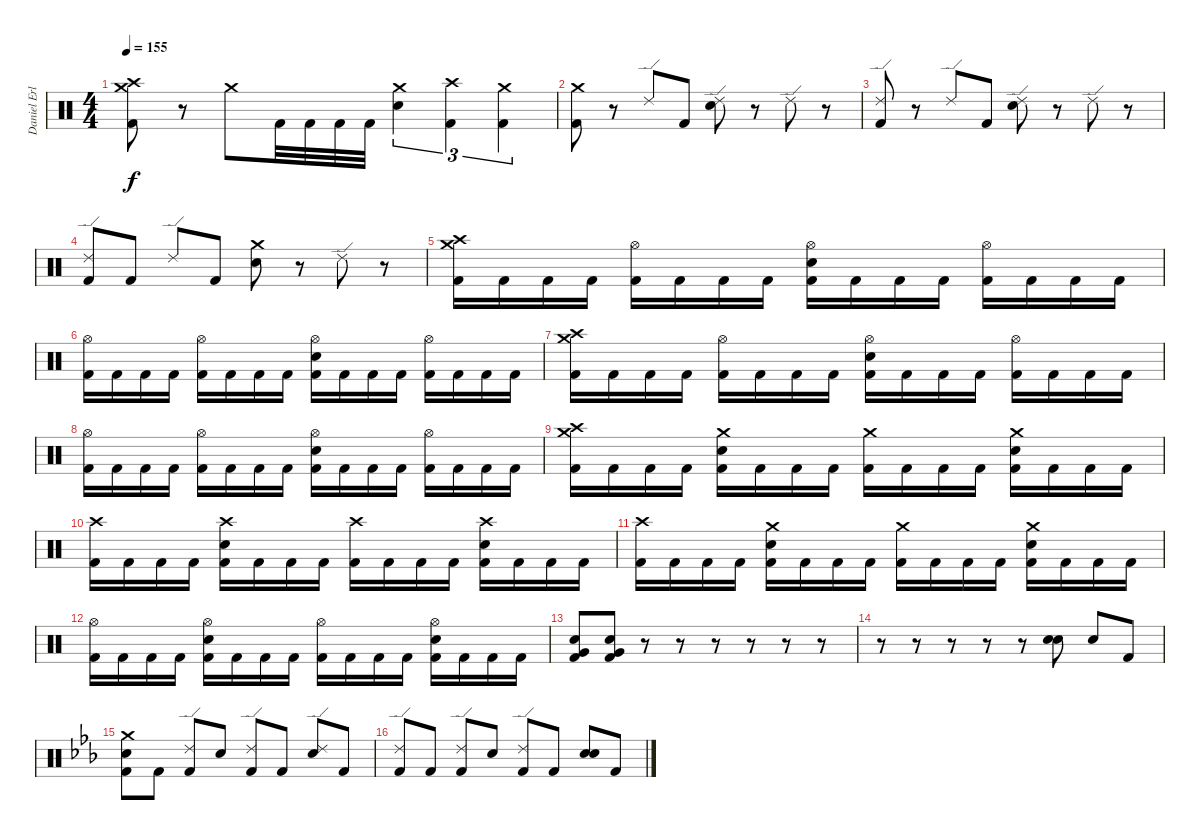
\track ("Daniel Erlandsson" "Daniel Erl") {instrument percussion}
\staff {score}
\articulation defaults
\ts (4 4)
\tempo 155
\clef neutral
\ks c
("Crash high (hit)" "Crash medium (hit)" "Kick (hit) 2").8{dy f} r.8 "Crash medium (hit)".8 "Kick (hit) 2".32 "Kick (hit) 2".32 "Kick (hit) 2".32 "Kick (hit) 2".32 ("Crash medium (hit)" "Snare (hit) 2").4{tu (3 2)} ("Crash high (hit)" "Kick (hit) 2").4{tu (3 2)} ("Crash medium (hit)" "Kick (hit) 2").4{tu (3 2)} |
("Crash medium (hit)" "Kick (hit) 2").8 r.8 "Ride (edge) 2".8 "Kick (hit) 2".8 ("Ride (edge) 2" "Snare (hit) 2").8 r.8 "Ride (edge) 2".8 r.8 |
("Ride (edge) 2" "Kick (hit) 2").8 r.8 "Ride (edge) 2".8 "Kick (hit) 2".8 ("Ride (edge) 2" "Snare (hit) 2").8 r.8 "Ride (edge) 2".8 r.8 |
("Ride (edge) 2" "Kick (hit) 2").8 "Kick (hit) 2".8 "Ride (edge) 2".8 "Kick (hit) 2".8 ("Crash medium (hit)" "Snare (hit) 2").8 r.8 "Ride (edge) 2".8 r.8 |
("Crash high (hit)" "Crash medium (hit)" "Kick (hit) 2").16 "Kick (hit) 2".16 "Kick (hit) 2".16 "Kick (hit) 2".16 ("Hi-Hat (open)" "Kick (hit) 2").16 "Kick (hit) 2".16 "Kick (hit) 2".16 "Kick (hit) 2".16 ("Hi-Hat (open)" "Snare (hit) 2" "Kick (hit) 2").16 "Kick (hit) 2".16 "Kick (hit) 2".16 "Kick (hit) 2".16 ("Hi-Hat (open)" "Kick (hit) 2").16 "Kick (hit) 2".16 "Kick (hit) 2".16 "Kick (hit) 2".16 |
("Hi-Hat (open)" "Kick (hit) 2").16 "Kick (hit) 2".16 "Kick (hit) 2".16 "Kick (hit) 2".16 ("Hi-Hat (open)" "Kick (hit) 2").16 "Kick (hit) 2".16 "Kick (hit) 2".16 "Kick (hit) 2".16 ("Hi-Hat (open)" "Snare (hit) 2" "Kick (hit) 2").16 "Kick (hit) 2".16 "Kick (hit) 2".16 "Kick (hit) 2".16 ("Hi-Hat (open)" "Kick (hit) 2").16 "Kick (hit) 2".16 "Kick (hit) 2".16 "Kick (hit) 2".16 |
("Crash high (hit)" "Crash medium (hit)" "Kick (hit) 2").16 "Kick (hit) 2".16 "Kick (hit) 2".16 "Kick (hit) 2".16 ("Hi-Hat (open)" "Kick (hit) 2").16 "Kick (hit) 2".16 "Kick (hit) 2".16 "Kick (hit) 2".16 ("Hi-Hat (open)" "Snare (hit) 2" "Kick (hit) 2").16 "Kick (hit) 2".16 "Kick (hit) 2".16 "Kick (hit) 2".16 ("Hi-Hat (open)" "Kick (hit) 2").16 "Kick (hit) 2".16 "Kick (hit) 2".16 "Kick (hit) 2".16 |
("Hi-Hat (open)" "Kick (hit) 2").16 "Kick (hit) 2".16 "Kick (hit) 2".16 "Kick (hit) 2".16 ("Hi-Hat (open)" "Kick (hit) 2").16 "Kick (hit) 2".16 "Kick (hit) 2".16 "Kick (hit) 2".16 ("Hi-Hat (open)" "Snare (hit) 2" "Kick (hit) 2").16 "Kick (hit) 2".16 "Kick (hit) 2".16 "Kick (hit) 2".16 ("Hi-Hat (open)" "Kick (hit) 2").16 "Kick (hit) 2".16 "Kick (hit) 2".16 "Kick (hit) 2".16 |
("Crash high (hit)" "Crash medium (hit)" "Kick (hit) 2").16 "Kick (hit) 2".16 "Kick (hit) 2".16 "Kick (hit) 2".16 ("Crash medium (hit)" "Snare (hit) 2" "Kick (hit) 2").16 "Kick (hit) 2".16 "Kick (hit) 2".16 "Kick (hit) 2".16 ("Crash medium (hit)" "Kick (hit) 2").16 "Kick (hit) 2".16 "Kick (hit) 2".16 "Kick (hit) 2".16 ("Crash medium (hit)" "Snare (hit) 2" "Kick (hit) 2").16 "Kick (hit) 2".16 "Kick (hit) 2".16 "Kick (hit) 2".16 |
("Crash high (hit)" "Kick (hit) 2").16 "Kick (hit) 2".16 "Kick (hit) 2".16 "Kick (hit) 2".16 ("Crash high (hit)" "Snare (hit) 2" "Kick (hit) 2").16 "Kick (hit) 2".16 "Kick (hit) 2".16 "Kick (hit) 2".16 ("Crash high (hit)" "Kick (hit) 2").16 "Kick (hit) 2".16 "Kick (hit) 2".16 "Kick (hit) 2".16 ("Crash high (hit)" "Snare (hit) 2" "Kick (hit) 2").16 "Kick (hit) 2".16 "Kick (hit) 2".16 "Kick (hit) 2".16 |
("Crash high (hit)" "Kick (hit) 2").16 "Kick (hit) 2".16 "Kick (hit) 2".16 "Kick (hit) 2".16 ("Crash medium (hit)" "Snare (hit) 2" "Kick (hit) 2").16 "Kick (hit) 2".16 "Kick (hit) 2".16 "Kick (hit) 2".16 ("Crash medium (hit)" "Kick (hit) 2").16 "Kick (hit) 2".16 "Kick (hit) 2".16 "Kick (hit) 2".16 ("Crash medium (hit)" "Snare (hit) 2" "Kick (hit) 2").16 "Kick (hit) 2".16 "Kick (hit) 2".16 "Kick (hit) 2".16 |
("Hi-Hat (open)" "Kick (hit) 2").16 "Kick (hit) 2".16 "Kick (hit) 2".16 "Kick (hit) 2".16 ("Hi-Hat (open)" "Snare (hit) 2" "Kick (hit) 2").16 "Kick (hit) 2".16 "Kick (hit) 2".16 "Kick (hit) 2".16 ("Hi-Hat (open)" "Kick (hit) 2").16 "Kick (hit) 2".16 "Kick (hit) 2".16 "Kick (hit) 2".16 ("Hi-Hat (open)" "Snare (hit) 2" "Kick (hit) 2").16 "Kick (hit) 2".16 "Kick (hit) 2".16 "Kick (hit) 2".16 |
("Very Low Tom (hit)" "Snare (hit) 2" "Kick (hit) 2").8 ("Very Low Tom (hit)" "Snare (hit) 2" "Kick (hit) 2").8 r.8 r.8 r.8 r.8 r.8 r.8 |
r.8 r.8 r.8 r.8 r.8 ("Snare (hit) 2" "Snare (hit) 2").8{bu 480} "Snare (hit) 2".8 "Kick (hit) 2".8 |
\ks cminor
("Crash medium (hit)" "Snare (hit) 2" "Kick (hit) 2").8 "Kick (hit) 2".8 ("Ride (edge) 2" "Kick (hit) 2").8 "Snare (hit) 2".8 ("Ride (edge) 2" "Kick (hit) 2").8 "Kick (hit) 2".8 ("Ride (edge) 2" "Snare (hit) 2").8 "Kick (hit) 2".8 |
("Ride (edge) 2" "Kick (hit) 2").8 "Kick (hit) 2".8 ("Ride (edge) 2" "Kick (hit) 2").8 "Snare (hit) 2".8 ("Ride (edge) 2" "Kick (hit) 2").8 "Kick (hit) 2".8 ("Snare (hit) 2" "Snare (hit) 2").8{bu 480} "Kick (hit) 2".8
